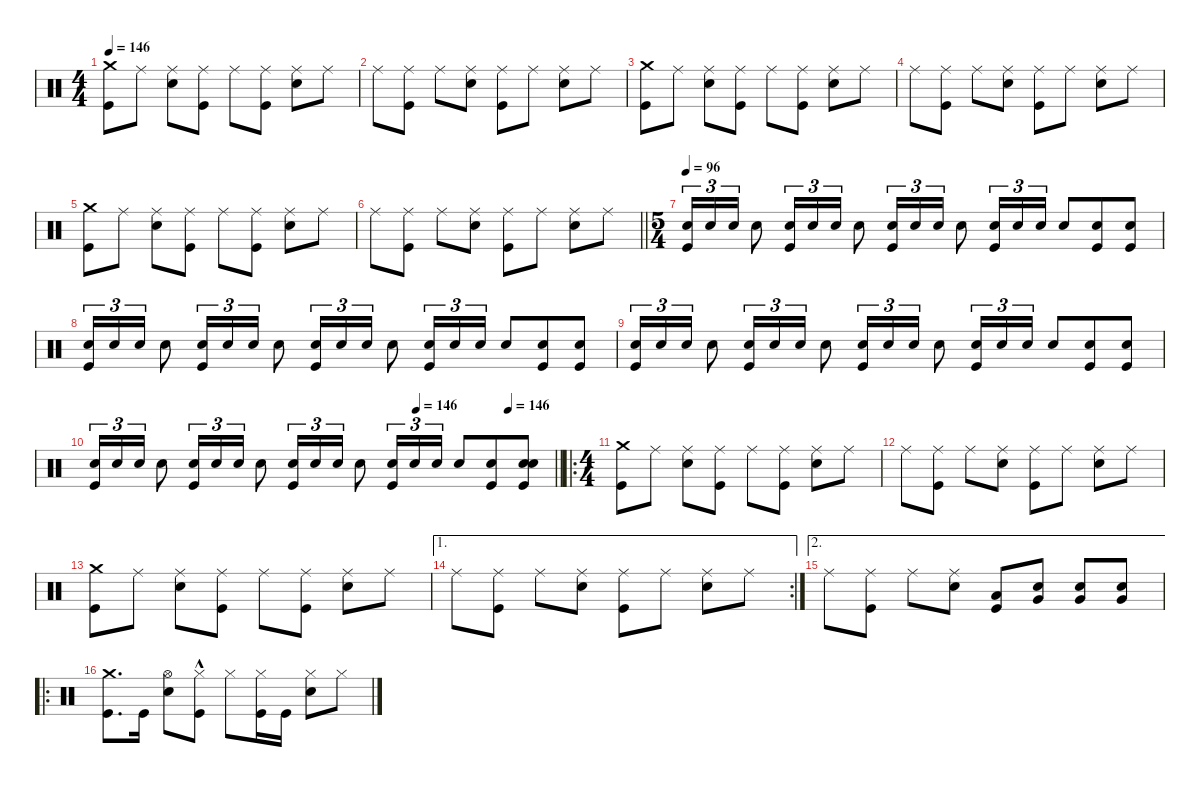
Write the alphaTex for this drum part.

\defaultSystemsLayout 4
\hideDynamics
\bracketExtendMode nobrackets
\singleTrackTrackNamePolicy hidden
\multiTrackTrackNamePolicy hidden
\firstSystemTrackNameMode fullname
\firstSystemTrackNameOrientation horizontal
\otherSystemsTrackNameOrientation horizontal
\track ("Drums" "drm.") {instrument percussion}
\staff {score}
\articulation defaults
\ts (4 4)
\tempo 146
\clef neutral
\ks c
("Crash medium (hit)" "Kick (hit)").8{dy f beam Down} "Ride (middle)".8{beam Down} ("Ride (middle)" "Snare (hit) 2").8{beam Down} ("Ride (middle)" "Kick (hit)").8{beam Down} "Ride (middle)".8{beam Down} ("Ride (middle)" "Kick (hit)").8{beam Down} ("Ride (middle)" "Snare (hit) 2").8{beam Down} "Ride (middle)".8{beam Down} |
"Ride (middle)".8{beam Down} ("Ride (middle)" "Kick (hit)").8{beam Down} "Ride (middle)".8{beam Down} ("Ride (middle)" "Snare (hit) 2").8{beam Down} ("Ride (middle)" "Kick (hit)").8{beam Down} "Ride (middle)".8{beam Down} ("Ride (middle)" "Snare (hit) 2").8{beam Down} "Ride (middle)".8{beam Down} |
("Crash medium (hit)" "Kick (hit)").8{beam Down} "Ride (middle)".8{beam Down} ("Ride (middle)" "Snare (hit) 2").8{beam Down} ("Ride (middle)" "Kick (hit)").8{beam Down} "Ride (middle)".8{beam Down} ("Ride (middle)" "Kick (hit)").8{beam Down} ("Ride (middle)" "Snare (hit) 2").8{beam Down} "Ride (middle)".8{beam Down} |
"Ride (middle)".8{beam Down} ("Ride (middle)" "Kick (hit)").8{beam Down} "Ride (middle)".8{beam Down} ("Ride (middle)" "Snare (hit) 2").8{beam Down} ("Ride (middle)" "Kick (hit)").8{beam Down} "Ride (middle)".8{beam Down} ("Ride (middle)" "Snare (hit) 2").8{beam Down} "Ride (middle)".8{beam Down} |
("Crash medium (hit)" "Kick (hit)").8{beam Down} "Ride (middle)".8{beam Down} ("Ride (middle)" "Snare (hit) 2").8{beam Down} ("Ride (middle)" "Kick (hit)").8{beam Down} "Ride (middle)".8{beam Down} ("Ride (middle)" "Kick (hit)").8{beam Down} ("Ride (middle)" "Snare (hit) 2").8{beam Down} "Ride (middle)".8{beam Down} |
\barLineRight lightlight "Ride (middle)".8{beam Down}
("Ride (middle)" "Kick (hit)").8{beam Down} "Ride (middle)".8{beam Down} ("Ride (middle)" "Snare (hit) 2").8{beam Down} ("Ride (middle)" "Kick (hit)").8{beam Down} "Ride (middle)".8{beam Down} ("Ride (middle)" "Snare (hit) 2").8{beam Down} "Ride (middle)".8{beam Down} |
\ts (5 4)
\beaming (8 6 4)
\tempo 96
("Snare (hit) 2" "Kick (hit)").16{tu (3 2) beam Up} "Snare (hit) 2".16{tu (3 2) beam Up} "Snare (hit) 2".16{tu (3 2) beam Up} "Snare (hit) 2".8{beam Down} ("Snare (hit) 2" "Kick (hit)").16{tu (3 2) beam Up} "Snare (hit) 2".16{tu (3 2) beam Up} "Snare (hit) 2".16{tu (3 2) beam Up} "Snare (hit) 2".8{beam Down} ("Snare (hit) 2" "Kick (hit)").16{tu (3 2) beam Up} "Snare (hit) 2".16{tu (3 2) beam Up} "Snare (hit) 2".16{tu (3 2) beam Up} "Snare (hit) 2".8{beam Down} ("Snare (hit) 2" "Kick (hit)").16{tu (3 2) beam Up} "Snare (hit) 2".16{tu (3 2) beam Up} "Snare (hit) 2".16{tu (3 2) beam Up} "Snare (hit) 2".8{beam Up} ("Snare (hit) 2" "Kick (hit)").8{beam Up} ("Snare (hit) 2" "Kick (hit)").8{beam Up} |
("Snare (hit) 2" "Kick (hit)").16{tu (3 2) beam Up} "Snare (hit) 2".16{tu (3 2) beam Up} "Snare (hit) 2".16{tu (3 2) beam Up} "Snare (hit) 2".8{beam Down} ("Snare (hit) 2" "Kick (hit)").16{tu (3 2) beam Up} "Snare (hit) 2".16{tu (3 2) beam Up} "Snare (hit) 2".16{tu (3 2) beam Up} "Snare (hit) 2".8{beam Down} ("Snare (hit) 2" "Kick (hit)").16{tu (3 2) beam Up} "Snare (hit) 2".16{tu (3 2) beam Up} "Snare (hit) 2".16{tu (3 2) beam Up} "Snare (hit) 2".8{beam Down} ("Snare (hit) 2" "Kick (hit)").16{tu (3 2) beam Up} "Snare (hit) 2".16{tu (3 2) beam Up} "Snare (hit) 2".16{tu (3 2) beam Up} "Snare (hit) 2".8{beam Up} ("Snare (hit) 2" "Kick (hit)").8{beam Up} ("Snare (hit) 2" "Kick (hit)").8{beam Up} |
("Snare (hit) 2" "Kick (hit)").16{tu (3 2) beam Up} "Snare (hit) 2".16{tu (3 2) beam Up} "Snare (hit) 2".16{tu (3 2) beam Up} "Snare (hit) 2".8{beam Down} ("Snare (hit) 2" "Kick (hit)").16{tu (3 2) beam Up} "Snare (hit) 2".16{tu (3 2) beam Up} "Snare (hit) 2".16{tu (3 2) beam Up} "Snare (hit) 2".8{beam Down} ("Snare (hit) 2" "Kick (hit)").16{tu (3 2) beam Up} "Snare (hit) 2".16{tu (3 2) beam Up} "Snare (hit) 2".16{tu (3 2) beam Up} "Snare (hit) 2".8{beam Down} ("Snare (hit) 2" "Kick (hit)").16{tu (3 2) beam Up} "Snare (hit) 2".16{tu (3 2) beam Up} "Snare (hit) 2".16{tu (3 2) beam Up} "Snare (hit) 2".8{beam Up} ("Snare (hit) 2" "Kick (hit)").8{beam Up} ("Snare (hit) 2" "Kick (hit)").8{beam Up} |
\tempo (146 0.7)
\tempo (146 0.9)
\barLineRight lightlight
("Snare (hit) 2" "Kick (hit)").16{tu (3 2) beam Up} "Snare (hit) 2".16{tu (3 2) beam Up} "Snare (hit) 2".16{tu (3 2) beam Up} "Snare (hit) 2".8{beam Down} ("Snare (hit) 2" "Kick (hit)").16{tu (3 2) beam Up} "Snare (hit) 2".16{tu (3 2) beam Up} "Snare (hit) 2".16{tu (3 2) beam Up} "Snare (hit) 2".8{beam Down} ("Snare (hit) 2" "Kick (hit)").16{tu (3 2) beam Up} "Snare (hit) 2".16{tu (3 2) beam Up} "Snare (hit) 2".16{tu (3 2) beam Up} "Snare (hit) 2".8{beam Down} ("Snare (hit) 2" "Kick (hit)").16{tu (3 2) beam Up} "Snare (hit) 2".16{tu (3 2) beam Up} "Snare (hit) 2".16{tu (3 2) beam Up} "Snare (hit) 2".8{beam Up} ("Snare (hit) 2" "Kick (hit)").8{beam Up} ("Snare (hit) 2" "Snare (hit) 2" "Kick (hit)").8{beam Up} |
\ro
\ts (4 4)
\beaming (8 2 2 2 2)
("Crash medium (hit)" "Kick (hit)").8{beam Down} "Ride (middle)".8{beam Down} ("Ride (middle)" "Snare (hit) 2").8{beam Down} ("Ride (middle)" "Kick (hit)").8{beam Down} "Ride (middle)".8{beam Down} ("Ride (middle)" "Kick (hit)").8{beam Down} ("Ride (middle)" "Snare (hit) 2").8{beam Down} "Ride (middle)".8{beam Down} |
"Ride (middle)".8{beam Down} ("Ride (middle)" "Kick (hit)").8{beam Down} "Ride (middle)".8{beam Down} ("Ride (middle)" "Snare (hit) 2").8{beam Down} ("Ride (middle)" "Kick (hit)").8{beam Down} "Ride (middle)".8{beam Down} ("Ride (middle)" "Snare (hit) 2").8{beam Down} "Ride (middle)".8{beam Down} |
("Crash medium (hit)" "Kick (hit)").8{beam Down} "Ride (middle)".8{beam Down} ("Ride (middle)" "Snare (hit) 2").8{beam Down} ("Ride (middle)" "Kick (hit)").8{beam Down} "Ride (middle)".8{beam Down} ("Ride (middle)" "Kick (hit)").8{beam Down} ("Ride (middle)" "Snare (hit) 2").8{beam Down} "Ride (middle)".8{beam Down} |
\ae 1
\rc 2 "Ride (middle)".8{beam Down}
("Ride (middle)" "Kick (hit)").8{beam Down} "Ride (middle)".8{beam Down} ("Ride (middle)" "Snare (hit) 2").8{beam Down} ("Ride (middle)" "Kick (hit)").8{beam Down} "Ride (middle)".8{beam Down} ("Ride (middle)" "Snare (hit) 2").8{beam Down} "Ride (middle)".8{beam Down} |
\ae 2 "Ride (middle)".8{beam Down}
("Ride (middle)" "Kick (hit)").8{beam Down} "Ride (middle)".8{beam Down} ("Ride (middle)" "Snare (hit) 2").8{beam Down} ("Low Floor Tom (hit)" "Kick (hit)").8{beam Up} ("Snare (hit) 2" "Very Low Tom (hit)").8{beam Up} ("Snare (hit) 2" "Very Low Tom (hit)").8{beam Up} ("Snare (hit) 2" "Very Low Tom (hit)").8{beam Up} |
\ro
("Crash medium (hit)" "Kick (hit)").8{d beam Down} "Kick (hit)".16{beam Down} ("Hi-Hat (open)" "Snare (hit) 2").8{beam Down} ("Hi-Hat (closed)"{hac} "Kick (hit)"{hac}).8{beam Down} "Hi-Hat (closed)".8{beam Down} ("Hi-Hat (closed)" "Kick (hit)").16{beam Down} "Kick (hit)".16{beam Down} ("Hi-Hat (closed)" "Snare (hit) 2").8{beam Down} "Hi-Hat (closed)".8{beam Down}
